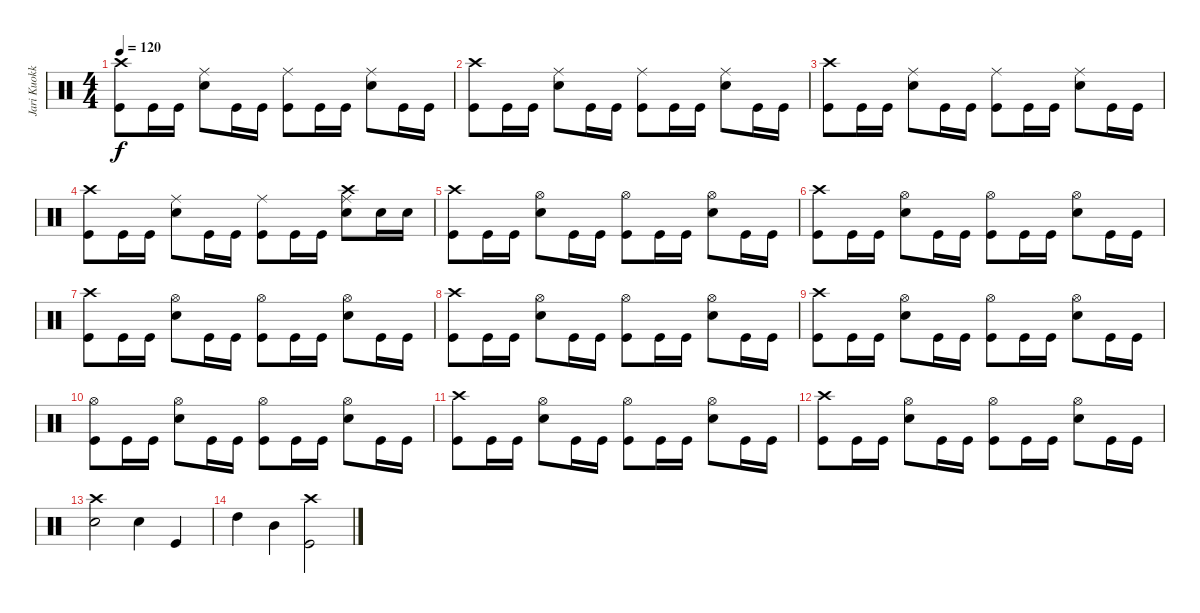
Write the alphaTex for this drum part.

\track ("Jari Kuokkanen" "Jari Kuokk") {instrument percussion bank 255}
\staff {score}
\articulation defaults
\ts (4 4)
\tempo 120
\clef neutral
\ks c
("Crash high (hit)" "Kick (hit)").8{dy f} "Kick (hit)".16 "Kick (hit)".16 ("Ride (middle)" "Snare (hit) 2").8 "Kick (hit)".16 "Kick (hit)".16 ("Ride (middle)" "Kick (hit)").8 "Kick (hit)".16 "Kick (hit)".16 ("Ride (middle)" "Snare (hit) 2").8 "Kick (hit)".16 "Kick (hit)".16 |
("Crash high (hit)" "Kick (hit)").8 "Kick (hit)".16 "Kick (hit)".16 ("Ride (middle)" "Snare (hit) 2").8 "Kick (hit)".16 "Kick (hit)".16 ("Ride (middle)" "Kick (hit)").8 "Kick (hit)".16 "Kick (hit)".16 ("Ride (middle)" "Snare (hit) 2").8 "Kick (hit)".16 "Kick (hit)".16 |
("Crash high (hit)" "Kick (hit)").8 "Kick (hit)".16 "Kick (hit)".16 ("Ride (middle)" "Snare (hit) 2").8 "Kick (hit)".16 "Kick (hit)".16 ("Ride (middle)" "Kick (hit)").8 "Kick (hit)".16 "Kick (hit)".16 ("Ride (middle)" "Snare (hit) 2").8 "Kick (hit)".16 "Kick (hit)".16 |
("Crash high (hit)" "Kick (hit)").8 "Kick (hit)".16 "Kick (hit)".16 ("Ride (middle)" "Snare (hit) 2").8 "Kick (hit)".16 "Kick (hit)".16 ("Ride (middle)" "Kick (hit)").8 "Kick (hit)".16 "Kick (hit)".16 ("Ride (middle)" "Crash high (hit)" "Snare (hit) 2").8 "Snare (hit) 2".16 "Snare (hit) 2".16 |
("Crash high (hit)" "Kick (hit)").8 "Kick (hit)".16 "Kick (hit)".16 ("Hi-Hat (open)" "Snare (hit) 2").8 "Kick (hit)".16 "Kick (hit)".16 ("Hi-Hat (open)" "Kick (hit)").8 "Kick (hit)".16 "Kick (hit)".16 ("Hi-Hat (open)" "Snare (hit) 2").8 "Kick (hit)".16 "Kick (hit)".16 |
("Crash high (hit)" "Kick (hit)").8 "Kick (hit)".16 "Kick (hit)".16 ("Hi-Hat (open)" "Snare (hit) 2").8 "Kick (hit)".16 "Kick (hit)".16 ("Hi-Hat (open)" "Kick (hit)").8 "Kick (hit)".16 "Kick (hit)".16 ("Hi-Hat (open)" "Snare (hit) 2").8 "Kick (hit)".16 "Kick (hit)".16 |
("Crash high (hit)" "Kick (hit)").8 "Kick (hit)".16 "Kick (hit)".16 ("Hi-Hat (open)" "Snare (hit) 2").8 "Kick (hit)".16 "Kick (hit)".16 ("Hi-Hat (open)" "Kick (hit)").8 "Kick (hit)".16 "Kick (hit)".16 ("Hi-Hat (open)" "Snare (hit) 2").8 "Kick (hit)".16 "Kick (hit)".16 |
("Crash high (hit)" "Kick (hit)").8 "Kick (hit)".16 "Kick (hit)".16 ("Hi-Hat (open)" "Snare (hit) 2").8 "Kick (hit)".16 "Kick (hit)".16 ("Hi-Hat (open)" "Kick (hit)").8 "Kick (hit)".16 "Kick (hit)".16 ("Hi-Hat (open)" "Snare (hit) 2").8 "Kick (hit)".16 "Kick (hit)".16 |
("Crash high (hit)" "Kick (hit)").8 "Kick (hit)".16 "Kick (hit)".16 ("Hi-Hat (open)" "Snare (hit) 2").8 "Kick (hit)".16 "Kick (hit)".16 ("Hi-Hat (open)" "Kick (hit)").8 "Kick (hit)".16 "Kick (hit)".16 ("Hi-Hat (open)" "Snare (hit) 2").8 "Kick (hit)".16 "Kick (hit)".16 |
("Hi-Hat (open)" "Kick (hit)").8 "Kick (hit)".16 "Kick (hit)".16 ("Hi-Hat (open)" "Snare (hit) 2").8 "Kick (hit)".16 "Kick (hit)".16 ("Hi-Hat (open)" "Kick (hit)").8 "Kick (hit)".16 "Kick (hit)".16 ("Hi-Hat (open)" "Snare (hit) 2").8 "Kick (hit)".16 "Kick (hit)".16 |
("Crash high (hit)" "Kick (hit)").8 "Kick (hit)".16 "Kick (hit)".16 ("Hi-Hat (open)" "Snare (hit) 2").8 "Kick (hit)".16 "Kick (hit)".16 ("Hi-Hat (open)" "Kick (hit)").8 "Kick (hit)".16 "Kick (hit)".16 ("Hi-Hat (open)" "Snare (hit) 2").8 "Kick (hit)".16 "Kick (hit)".16 |
("Crash high (hit)" "Kick (hit)").8 "Kick (hit)".16 "Kick (hit)".16 ("Hi-Hat (open)" "Snare (hit) 2").8 "Kick (hit)".16 "Kick (hit)".16 ("Hi-Hat (open)" "Kick (hit)").8 "Kick (hit)".16 "Kick (hit)".16 ("Hi-Hat (open)" "Snare (hit) 2").8 "Kick (hit)".16 "Kick (hit)".16 |
("Crash high (hit)" "Snare (hit) 2").2 "Snare (hit) 2".4 "Kick (hit)".4 |
"High Tom (hit)".4 "Mid Tom (hit)".4 ("Crash high (hit)" "Kick (hit)").2
